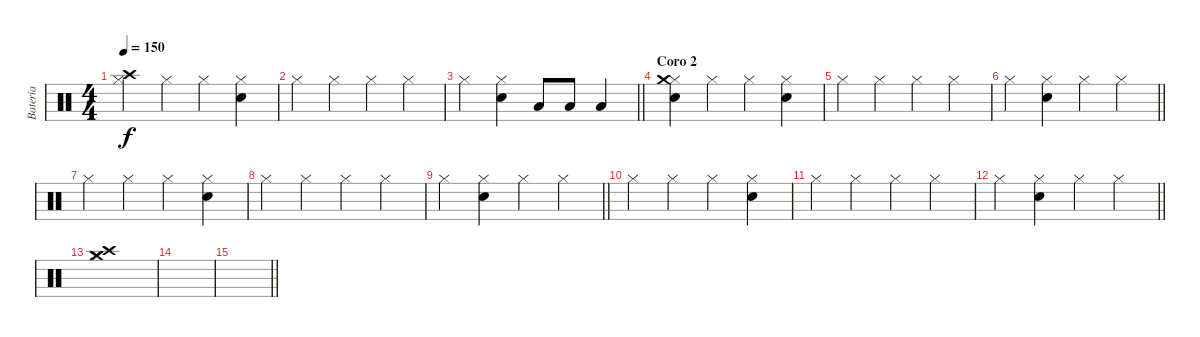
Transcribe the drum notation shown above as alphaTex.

\track ("Batería" "Batería") {instrument percussion}
\staff {score}
\articulation defaults
\ts (4 4)
\tempo 150
\clef neutral
\ks c
("Hi-Hat (closed)" "Crash high (hit)").4{dy f} "Hi-Hat (closed)".4 "Hi-Hat (closed)".4 ("Hi-Hat (closed)" "Electric Snare (hit)").4 |
"Hi-Hat (closed)".4 "Hi-Hat (closed)".4 "Hi-Hat (closed)".4 "Hi-Hat (closed)".4 |
\barLineRight lightlight "Hi-Hat (closed)".4
("Hi-Hat (closed)" "Electric Snare (hit)").4 "Low Tom (hit)".8 "Low Tom (hit)".8 "Low Tom (hit)".4 |
\section ("" "Coro 2")
("Hi-Hat (closed)" "Electric Snare (hit)" "Crash medium (hit)").4 "Hi-Hat (closed)".4 "Hi-Hat (closed)".4 ("Hi-Hat (closed)" "Electric Snare (hit)").4 |
"Hi-Hat (closed)".4 "Hi-Hat (closed)".4 "Hi-Hat (closed)".4 "Hi-Hat (closed)".4 |
\barLineRight lightlight "Hi-Hat (closed)".4
("Hi-Hat (closed)" "Electric Snare (hit)").4 "Hi-Hat (closed)".4 "Hi-Hat (closed)".4 |
"Hi-Hat (closed)".4 "Hi-Hat (closed)".4 "Hi-Hat (closed)".4 ("Hi-Hat (closed)" "Electric Snare (hit)").4 |
"Hi-Hat (closed)".4 "Hi-Hat (closed)".4 "Hi-Hat (closed)".4 "Hi-Hat (closed)".4 |
\barLineRight lightlight "Hi-Hat (closed)".4
("Hi-Hat (closed)" "Electric Snare (hit)").4 "Hi-Hat (closed)".4 "Hi-Hat (closed)".4 |
"Hi-Hat (closed)".4 "Hi-Hat (closed)".4 "Hi-Hat (closed)".4 ("Hi-Hat (closed)" "Electric Snare (hit)").4 |
"Hi-Hat (closed)".4 "Hi-Hat (closed)".4 "Hi-Hat (closed)".4 "Hi-Hat (closed)".4 |
\barLineRight lightlight "Hi-Hat (closed)".4
("Hi-Hat (closed)" "Electric Snare (hit)").4 "Hi-Hat (closed)".4 "Hi-Hat (closed)".4 |
("Hi-Hat (closed)" "Crash medium (hit)" "Crash high (hit)").1 |
|
\barLineRight lightlight
